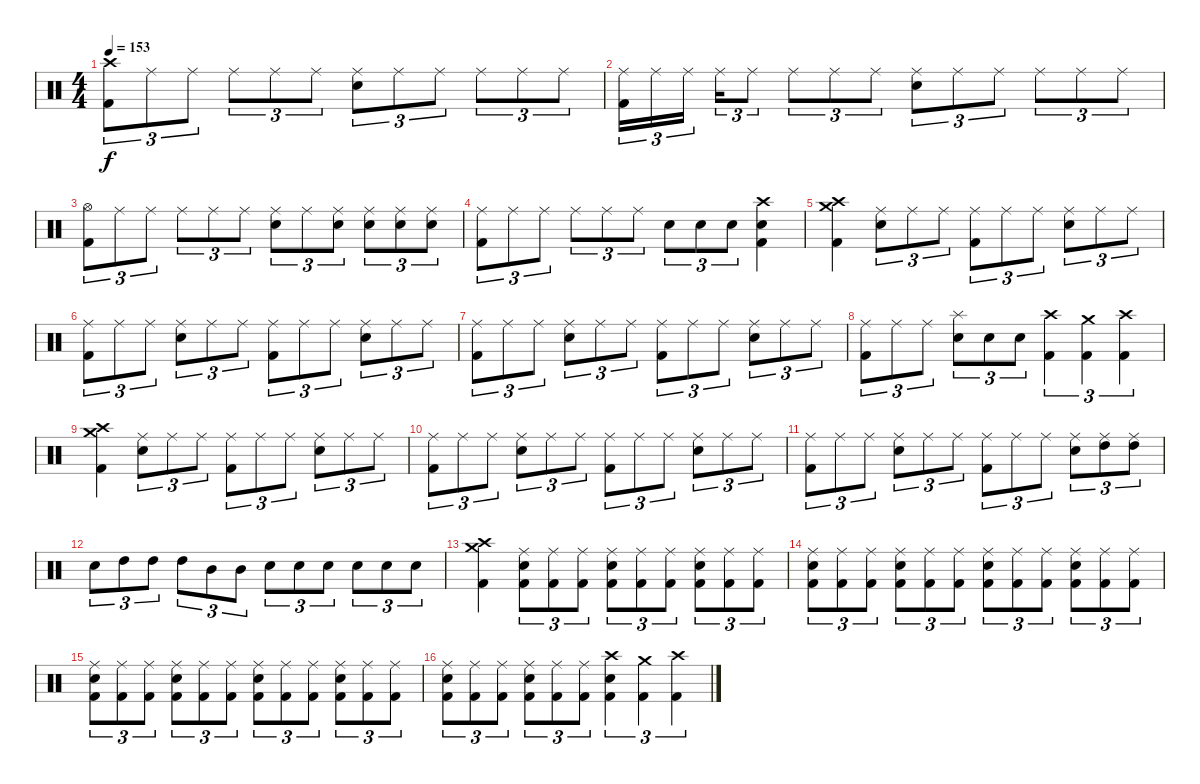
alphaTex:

\track "" {instrument percussion}
\staff {score}
\articulation defaults
\ts (4 4)
\tempo 153
\clef neutral
\ks c
("Crash high (hit)" "Kick (hit) 2").8{tu (3 2) dy f} "Ride (middle)".8{tu (3 2)} "Ride (middle)".8{tu (3 2)} "Ride (middle)".8{tu (3 2)} "Ride (middle)".8{tu (3 2)} "Ride (middle)".8{tu (3 2)} ("Ride (middle)" "Electric Snare (hit)").8{tu (3 2)} "Ride (middle)".8{tu (3 2)} "Ride (middle)".8{tu (3 2)} "Ride (middle)".8{tu (3 2)} "Ride (middle)".8{tu (3 2)} "Ride (middle)".8{tu (3 2)} |
("Ride (middle)" "Kick (hit) 2").16{tu (3 2)} "Ride (middle)".16{tu (3 2)} "Ride (middle)".16{tu (3 2)} "Ride (middle)".16{tu (3 2)} "Ride (middle)".8{tu (3 2)} "Ride (middle)".8{tu (3 2)} "Ride (middle)".8{tu (3 2)} "Ride (middle)".8{tu (3 2)} ("Ride (middle)" "Electric Snare (hit)").8{tu (3 2)} "Ride (middle)".8{tu (3 2)} "Ride (middle)".8{tu (3 2)} "Ride (middle)".8{tu (3 2)} "Ride (middle)".8{tu (3 2)} "Ride (middle)".8{tu (3 2)} |
("Hi-Hat (open)" "Kick (hit) 2").8{tu (3 2)} "Ride (middle)".8{tu (3 2)} "Ride (middle)".8{tu (3 2)} "Ride (middle)".8{tu (3 2)} "Ride (middle)".8{tu (3 2)} "Ride (middle)".8{tu (3 2)} ("Ride (middle)" "Electric Snare (hit)").8{tu (3 2)} "Ride (middle)".8{tu (3 2)} ("Ride (middle)" "Electric Snare (hit)").8{tu (3 2)} ("Ride (middle)" "Electric Snare (hit)").8{tu (3 2)} ("Ride (middle)" "Electric Snare (hit)").8{tu (3 2)} ("Ride (middle)" "Electric Snare (hit)").8{tu (3 2)} |
("Ride (middle)" "Kick (hit) 2").8{tu (3 2)} "Ride (middle)".8{tu (3 2)} "Ride (middle)".8{tu (3 2)} "Ride (middle)".8{tu (3 2)} "Ride (middle)".8{tu (3 2)} "Ride (middle)".8{tu (3 2)} "Electric Snare (hit)".8{tu (3 2)} "Electric Snare (hit)".8{tu (3 2)} "Electric Snare (hit)".8{tu (3 2)} ("Crash high (hit)" "Electric Snare (hit)" "Kick (hit) 2").4 |
\section ("" "")
("Crash high (hit)" "Crash medium (hit)" "Kick (hit) 2").4 ("Ride (middle)" "Electric Snare (hit)").8{tu (3 2)} "Ride (middle)".8{tu (3 2)} "Ride (middle)".8{tu (3 2)} ("Ride (middle)" "Kick (hit) 2").8{tu (3 2)} "Ride (middle)".8{tu (3 2)} "Ride (middle)".8{tu (3 2)} ("Ride (middle)" "Electric Snare (hit)").8{tu (3 2)} "Ride (middle)".8{tu (3 2)} "Ride (middle)".8{tu (3 2)} |
("Ride (middle)" "Kick (hit) 2").8{tu (3 2)} "Ride (middle)".8{tu (3 2)} "Ride (middle)".8{tu (3 2)} ("Ride (middle)" "Electric Snare (hit)").8{tu (3 2)} "Ride (middle)".8{tu (3 2)} "Ride (middle)".8{tu (3 2)} ("Ride (middle)" "Kick (hit) 2").8{tu (3 2)} "Ride (middle)".8{tu (3 2)} "Ride (middle)".8{tu (3 2)} ("Ride (middle)" "Electric Snare (hit)").8{tu (3 2)} "Ride (middle)".8{tu (3 2)} "Ride (middle)".8{tu (3 2)} |
("Ride (middle)" "Kick (hit) 2").8{tu (3 2)} "Ride (middle)".8{tu (3 2)} "Ride (middle)".8{tu (3 2)} ("Ride (middle)" "Electric Snare (hit)").8{tu (3 2)} "Ride (middle)".8{tu (3 2)} "Ride (middle)".8{tu (3 2)} ("Ride (middle)" "Kick (hit) 2").8{tu (3 2)} "Ride (middle)".8{tu (3 2)} "Ride (middle)".8{tu (3 2)} ("Ride (middle)" "Electric Snare (hit)").8{tu (3 2)} "Ride (middle)".8{tu (3 2)} "Ride (middle)".8{tu (3 2)} |
("Ride (middle)" "Kick (hit) 2").8{tu (3 2)} "Ride (middle)".8{tu (3 2)} "Ride (middle)".8{tu (3 2)} ("Splash (hit)" "Electric Snare (hit)").8{tu (3 2)} "Electric Snare (hit)".8{tu (3 2)} "Electric Snare (hit)".8{tu (3 2)} ("Crash high (hit)" "Kick (hit) 2").4{tu (3 2)} ("Crash medium (hit)" "Kick (hit) 2").4{tu (3 2)} ("Crash high (hit)" "Kick (hit) 2").4{tu (3 2)} |
("Crash high (hit)" "Crash medium (hit)" "Kick (hit) 2").4 ("Ride (middle)" "Electric Snare (hit)").8{tu (3 2)} "Ride (middle)".8{tu (3 2)} "Ride (middle)".8{tu (3 2)} ("Ride (middle)" "Kick (hit) 2").8{tu (3 2)} "Ride (middle)".8{tu (3 2)} "Ride (middle)".8{tu (3 2)} ("Ride (middle)" "Electric Snare (hit)").8{tu (3 2)} "Ride (middle)".8{tu (3 2)} "Ride (middle)".8{tu (3 2)} |
("Ride (middle)" "Kick (hit) 2").8{tu (3 2)} "Ride (middle)".8{tu (3 2)} "Ride (middle)".8{tu (3 2)} ("Ride (middle)" "Electric Snare (hit)").8{tu (3 2)} "Ride (middle)".8{tu (3 2)} "Ride (middle)".8{tu (3 2)} ("Ride (middle)" "Kick (hit) 2").8{tu (3 2)} "Ride (middle)".8{tu (3 2)} "Ride (middle)".8{tu (3 2)} ("Ride (middle)" "Electric Snare (hit)").8{tu (3 2)} "Ride (middle)".8{tu (3 2)} "Ride (middle)".8{tu (3 2)} |
("Ride (middle)" "Kick (hit) 2").8{tu (3 2)} "Ride (middle)".8{tu (3 2)} "Ride (middle)".8{tu (3 2)} ("Ride (middle)" "Electric Snare (hit)").8{tu (3 2)} "Ride (middle)".8{tu (3 2)} "Ride (middle)".8{tu (3 2)} ("Ride (middle)" "Kick (hit) 2").8{tu (3 2)} "Ride (middle)".8{tu (3 2)} "Ride (middle)".8{tu (3 2)} ("Ride (middle)" "Electric Snare (hit)").8{tu (3 2)} ("Ride (middle)" "High Tom (hit)").8{tu (3 2)} ("Ride (middle)" "High Tom (hit)").8{tu (3 2)} |
"Electric Snare (hit)".8{tu (3 2)} "High Tom (hit)".8{tu (3 2)} "High Tom (hit)".8{tu (3 2)} "High Tom (hit)".8{tu (3 2)} "Mid Tom (hit)".8{tu (3 2)} "Mid Tom (hit)".8{tu (3 2)} "Electric Snare (hit)".8{tu (3 2)} "Electric Snare (hit)".8{tu (3 2)} "Electric Snare (hit)".8{tu (3 2)} "Electric Snare (hit)".8{tu (3 2)} "Electric Snare (hit)".8{tu (3 2)} "Electric Snare (hit)".8{tu (3 2)} |
\section ("" "")
("Crash high (hit)" "Crash medium (hit)" "Kick (hit) 2").4 ("Ride (middle)" "Electric Snare (hit)" "Kick (hit) 2").8{tu (3 2)} ("Ride (middle)" "Kick (hit) 2").8{tu (3 2)} ("Ride (middle)" "Kick (hit) 2").8{tu (3 2)} ("Ride (middle)" "Electric Snare (hit)" "Kick (hit) 2").8{tu (3 2)} ("Ride (middle)" "Kick (hit) 2").8{tu (3 2)} ("Ride (middle)" "Kick (hit) 2").8{tu (3 2)} ("Ride (middle)" "Electric Snare (hit)" "Kick (hit) 2").8{tu (3 2)} ("Ride (middle)" "Kick (hit) 2").8{tu (3 2)} ("Ride (middle)" "Kick (hit) 2").8{tu (3 2)} |
("Ride (middle)" "Electric Snare (hit)" "Kick (hit) 2").8{tu (3 2)} ("Ride (middle)" "Kick (hit) 2").8{tu (3 2)} ("Ride (middle)" "Kick (hit) 2").8{tu (3 2)} ("Ride (middle)" "Electric Snare (hit)" "Kick (hit) 2").8{tu (3 2)} ("Ride (middle)" "Kick (hit) 2").8{tu (3 2)} ("Ride (middle)" "Kick (hit) 2").8{tu (3 2)} ("Ride (middle)" "Electric Snare (hit)" "Kick (hit) 2").8{tu (3 2)} ("Ride (middle)" "Kick (hit) 2").8{tu (3 2)} ("Ride (middle)" "Kick (hit) 2").8{tu (3 2)} ("Ride (middle)" "Electric Snare (hit)" "Kick (hit) 2").8{tu (3 2)} ("Ride (middle)" "Kick (hit) 2").8{tu (3 2)} ("Ride (middle)" "Kick (hit) 2").8{tu (3 2)} |
("Ride (middle)" "Electric Snare (hit)" "Kick (hit) 2").8{tu (3 2)} ("Ride (middle)" "Kick (hit) 2").8{tu (3 2)} ("Ride (middle)" "Kick (hit) 2").8{tu (3 2)} ("Ride (middle)" "Electric Snare (hit)" "Kick (hit) 2").8{tu (3 2)} ("Ride (middle)" "Kick (hit) 2").8{tu (3 2)} ("Ride (middle)" "Kick (hit) 2").8{tu (3 2)} ("Ride (middle)" "Electric Snare (hit)" "Kick (hit) 2").8{tu (3 2)} ("Ride (middle)" "Kick (hit) 2").8{tu (3 2)} ("Ride (middle)" "Kick (hit) 2").8{tu (3 2)} ("Ride (middle)" "Electric Snare (hit)" "Kick (hit) 2").8{tu (3 2)} ("Ride (middle)" "Kick (hit) 2").8{tu (3 2)} ("Ride (middle)" "Kick (hit) 2").8{tu (3 2)} |
("Ride (middle)" "Electric Snare (hit)" "Kick (hit) 2").8{tu (3 2)} ("Ride (middle)" "Kick (hit) 2").8{tu (3 2)} ("Ride (middle)" "Kick (hit) 2").8{tu (3 2)} ("Ride (middle)" "Electric Snare (hit)" "Kick (hit) 2").8{tu (3 2)} ("Ride (middle)" "Kick (hit) 2").8{tu (3 2)} ("Ride (middle)" "Kick (hit) 2").8{tu (3 2)} ("Crash high (hit)" "Electric Snare (hit)" "Kick (hit) 2").4{tu (3 2)} ("Crash medium (hit)" "Kick (hit) 2").4{tu (3 2)} ("Crash high (hit)" "Kick (hit) 2").4{tu (3 2)}
